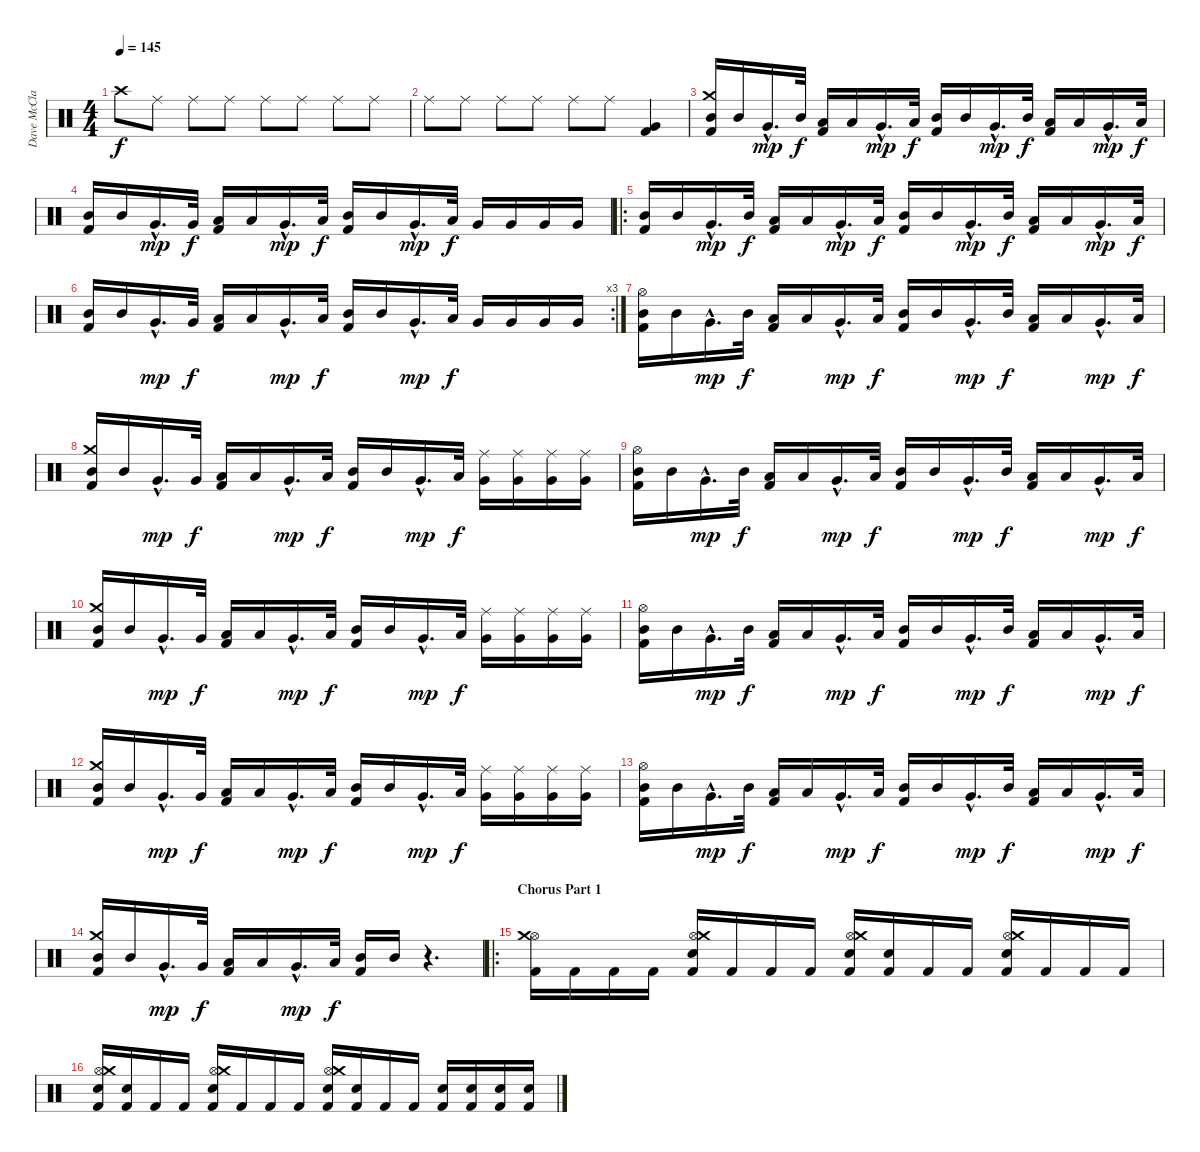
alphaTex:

\track ("Dave McClain" "Dave McCla") {instrument percussion}
\staff {score}
\articulation defaults
\ts (4 4)
\tempo 145
\clef neutral
\ks c "Crash high (hit)".8{dy f} "Ride (middle)".8 "Ride (middle)".8 "Ride (middle)".8 "Ride (middle)".8 "Ride (middle)".8 "Ride (middle)".8 "Ride (middle)".8
|
"Ride (middle)".8 "Ride (middle)".8 "Ride (middle)".8 "Ride (middle)".8 "Ride (middle)".8 "Ride (middle)".8 ("Very Low Tom (hit)" "Kick (hit) 2").4 |
("Crash medium (hit)" "Mid Tom (hit)" "Kick (hit) 2").16 "Mid Tom (hit)".16 "Very Low Tom (hit)"{hac}.16{d dy mp} "Mid Tom (hit)".32{dy f} ("Low Tom (hit)" "Kick (hit) 2").16 "Low Tom (hit)".16 "Very Low Tom (hit)"{hac}.16{d dy mp} "Low Tom (hit)".32{dy f} ("Mid Tom (hit)" "Kick (hit) 2").16 "Mid Tom (hit)".16 "Very Low Tom (hit)"{hac}.16{d dy mp} "Mid Tom (hit)".32{dy f} ("Low Tom (hit)" "Kick (hit) 2").16 "Low Tom (hit)".16 "Very Low Tom (hit)"{hac}.16{d dy mp} "Low Tom (hit)".32{dy f} |
("Mid Tom (hit)" "Kick (hit) 2").16 "Mid Tom (hit)".16 "Very Low Tom (hit)"{hac}.16{d dy mp} "Very Low Tom (hit)".32{dy f} ("Low Tom (hit)" "Kick (hit) 2").16 "Low Tom (hit)".16 "Very Low Tom (hit)"{hac}.16{d dy mp} "Low Tom (hit)".32{dy f} ("Mid Tom (hit)" "Kick (hit) 2").16 "Mid Tom (hit)".16 "Very Low Tom (hit)"{hac}.16{d dy mp} "Low Tom (hit)".32{dy f} "Very Low Tom (hit)".16 "Very Low Tom (hit)".16 "Very Low Tom (hit)".16 "Very Low Tom (hit)".16 |
\ro
("Mid Tom (hit)" "Kick (hit) 2").16 "Mid Tom (hit)".16 "Very Low Tom (hit)"{hac}.16{d dy mp} "Mid Tom (hit)".32{dy f} ("Low Tom (hit)" "Kick (hit) 2").16 "Low Tom (hit)".16 "Very Low Tom (hit)"{hac}.16{d dy mp} "Low Tom (hit)".32{dy f} ("Mid Tom (hit)" "Kick (hit) 2").16 "Mid Tom (hit)".16 "Very Low Tom (hit)"{hac}.16{d dy mp} "Mid Tom (hit)".32{dy f} ("Low Tom (hit)" "Kick (hit) 2").16 "Low Tom (hit)".16 "Very Low Tom (hit)"{hac}.16{d dy mp} "Low Tom (hit)".32{dy f} |
\rc 3
("Mid Tom (hit)" "Kick (hit) 2").16 "Mid Tom (hit)".16 "Very Low Tom (hit)"{hac}.16{d dy mp} "Very Low Tom (hit)".32{dy f} ("Low Tom (hit)" "Kick (hit) 2").16 "Low Tom (hit)".16 "Very Low Tom (hit)"{hac}.16{d dy mp} "Low Tom (hit)".32{dy f} ("Mid Tom (hit)" "Kick (hit) 2").16 "Mid Tom (hit)".16 "Very Low Tom (hit)"{hac}.16{d dy mp} "Low Tom (hit)".32{dy f} "Very Low Tom (hit)".16 "Very Low Tom (hit)".16 "Very Low Tom (hit)".16 "Very Low Tom (hit)".16 |
("Hi-Hat (open)" "Mid Tom (hit)" "Kick (hit) 2").16 "Mid Tom (hit)".16 "Very Low Tom (hit)"{hac}.16{d dy mp} "Mid Tom (hit)".32{dy f} ("Low Tom (hit)" "Kick (hit) 2").16 "Low Tom (hit)".16 "Very Low Tom (hit)"{hac}.16{d dy mp} "Low Tom (hit)".32{dy f} ("Mid Tom (hit)" "Kick (hit) 2").16 "Mid Tom (hit)".16 "Very Low Tom (hit)"{hac}.16{d dy mp} "Mid Tom (hit)".32{dy f} ("Low Tom (hit)" "Kick (hit) 2").16 "Low Tom (hit)".16 "Very Low Tom (hit)"{hac}.16{d dy mp} "Low Tom (hit)".32{dy f} |
("Crash medium (hit)" "Mid Tom (hit)" "Kick (hit) 2").16 "Mid Tom (hit)".16 "Very Low Tom (hit)"{hac}.16{d dy mp} "Very Low Tom (hit)".32{dy f} ("Low Tom (hit)" "Kick (hit) 2").16 "Low Tom (hit)".16 "Very Low Tom (hit)"{hac}.16{d dy mp} "Low Tom (hit)".32{dy f} ("Mid Tom (hit)" "Kick (hit) 2").16 "Mid Tom (hit)".16 "Very Low Tom (hit)"{hac}.16{d dy mp} "Low Tom (hit)".32{dy f} ("Ride (middle)" "Very Low Tom (hit)").16 ("Ride (middle)" "Very Low Tom (hit)").16 ("Ride (middle)" "Very Low Tom (hit)").16 ("Ride (middle)" "Very Low Tom (hit)").16 |
("Hi-Hat (open)" "Mid Tom (hit)" "Kick (hit) 2").16 "Mid Tom (hit)".16 "Very Low Tom (hit)"{hac}.16{d dy mp} "Mid Tom (hit)".32{dy f} ("Low Tom (hit)" "Kick (hit) 2").16 "Low Tom (hit)".16 "Very Low Tom (hit)"{hac}.16{d dy mp} "Low Tom (hit)".32{dy f} ("Mid Tom (hit)" "Kick (hit) 2").16 "Mid Tom (hit)".16 "Very Low Tom (hit)"{hac}.16{d dy mp} "Mid Tom (hit)".32{dy f} ("Low Tom (hit)" "Kick (hit) 2").16 "Low Tom (hit)".16 "Very Low Tom (hit)"{hac}.16{d dy mp} "Low Tom (hit)".32{dy f} |
("Crash medium (hit)" "Mid Tom (hit)" "Kick (hit) 2").16 "Mid Tom (hit)".16 "Very Low Tom (hit)"{hac}.16{d dy mp} "Very Low Tom (hit)".32{dy f} ("Low Tom (hit)" "Kick (hit) 2").16 "Low Tom (hit)".16 "Very Low Tom (hit)"{hac}.16{d dy mp} "Low Tom (hit)".32{dy f} ("Mid Tom (hit)" "Kick (hit) 2").16 "Mid Tom (hit)".16 "Very Low Tom (hit)"{hac}.16{d dy mp} "Low Tom (hit)".32{dy f} ("Ride (middle)" "Very Low Tom (hit)").16 ("Ride (middle)" "Very Low Tom (hit)").16 ("Ride (middle)" "Very Low Tom (hit)").16 ("Ride (middle)" "Very Low Tom (hit)").16 |
("Hi-Hat (open)" "Mid Tom (hit)" "Kick (hit) 2").16 "Mid Tom (hit)".16 "Very Low Tom (hit)"{hac}.16{d dy mp} "Mid Tom (hit)".32{dy f} ("Low Tom (hit)" "Kick (hit) 2").16 "Low Tom (hit)".16 "Very Low Tom (hit)"{hac}.16{d dy mp} "Low Tom (hit)".32{dy f} ("Mid Tom (hit)" "Kick (hit) 2").16 "Mid Tom (hit)".16 "Very Low Tom (hit)"{hac}.16{d dy mp} "Mid Tom (hit)".32{dy f} ("Low Tom (hit)" "Kick (hit) 2").16 "Low Tom (hit)".16 "Very Low Tom (hit)"{hac}.16{d dy mp} "Low Tom (hit)".32{dy f} |
("Crash medium (hit)" "Mid Tom (hit)" "Kick (hit) 2").16 "Mid Tom (hit)".16 "Very Low Tom (hit)"{hac}.16{d dy mp} "Very Low Tom (hit)".32{dy f} ("Low Tom (hit)" "Kick (hit) 2").16 "Low Tom (hit)".16 "Very Low Tom (hit)"{hac}.16{d dy mp} "Low Tom (hit)".32{dy f} ("Mid Tom (hit)" "Kick (hit) 2").16 "Mid Tom (hit)".16 "Very Low Tom (hit)"{hac}.16{d dy mp} "Low Tom (hit)".32{dy f} ("Ride (middle)" "Very Low Tom (hit)").16 ("Ride (middle)" "Very Low Tom (hit)").16 ("Ride (middle)" "Very Low Tom (hit)").16 ("Ride (middle)" "Very Low Tom (hit)").16 |
("Hi-Hat (open)" "Mid Tom (hit)" "Kick (hit) 2").16 "Mid Tom (hit)".16 "Very Low Tom (hit)"{hac}.16{d dy mp} "Mid Tom (hit)".32{dy f} ("Low Tom (hit)" "Kick (hit) 2").16 "Low Tom (hit)".16 "Very Low Tom (hit)"{hac}.16{d dy mp} "Low Tom (hit)".32{dy f} ("Mid Tom (hit)" "Kick (hit) 2").16 "Mid Tom (hit)".16 "Very Low Tom (hit)"{hac}.16{d dy mp} "Mid Tom (hit)".32{dy f} ("Low Tom (hit)" "Kick (hit) 2").16 "Low Tom (hit)".16 "Very Low Tom (hit)"{hac}.16{d dy mp} "Low Tom (hit)".32{dy f} |
("Crash medium (hit)" "Mid Tom (hit)" "Kick (hit) 2").16 "Mid Tom (hit)".16 "Very Low Tom (hit)"{hac}.16{d dy mp} "Very Low Tom (hit)".32{dy f} ("Low Tom (hit)" "Kick (hit) 2").16 "Low Tom (hit)".16 "Very Low Tom (hit)"{hac}.16{d dy mp} "Low Tom (hit)".32{dy f} ("Mid Tom (hit)" "Kick (hit) 2").16 "Mid Tom (hit)".16 r.4{d} |
\ro
\section ("" "Chorus Part 1")
("Hi-Hat (open)" "Crash medium (hit)" "Kick (hit) 2").16 "Kick (hit) 2".16 "Kick (hit) 2".16 "Kick (hit) 2".16 ("Hi-Hat (open)" "Crash medium (hit)" "Snare (hit) 2" "Kick (hit) 2").16 "Kick (hit) 2".16 "Kick (hit) 2".16 "Kick (hit) 2".16 ("Hi-Hat (open)" "Crash medium (hit)" "Snare (hit) 2" "Kick (hit) 2").16 ("Snare (hit) 2" "Kick (hit) 2").16 "Kick (hit) 2".16 "Kick (hit) 2".16 ("Hi-Hat (open)" "Crash medium (hit)" "Snare (hit) 2" "Kick (hit) 2").16 "Kick (hit) 2".16 "Kick (hit) 2".16 "Kick (hit) 2".16 |
("Hi-Hat (open)" "Crash medium (hit)" "Snare (hit) 2" "Kick (hit) 2").16 ("Snare (hit) 2" "Kick (hit) 2").16 "Kick (hit) 2".16 "Kick (hit) 2".16 ("Hi-Hat (open)" "Crash medium (hit)" "Snare (hit) 2" "Kick (hit) 2").16 "Kick (hit) 2".16 "Kick (hit) 2".16 "Kick (hit) 2".16 ("Hi-Hat (open)" "Crash medium (hit)" "Snare (hit) 2" "Kick (hit) 2").16 ("Snare (hit) 2" "Kick (hit) 2").16 "Kick (hit) 2".16 "Kick (hit) 2".16 ("Snare (hit) 2" "Kick (hit) 2").16 ("Snare (hit) 2" "Kick (hit) 2").16 ("Snare (hit) 2" "Kick (hit) 2").16 ("Snare (hit) 2" "Kick (hit) 2").16
